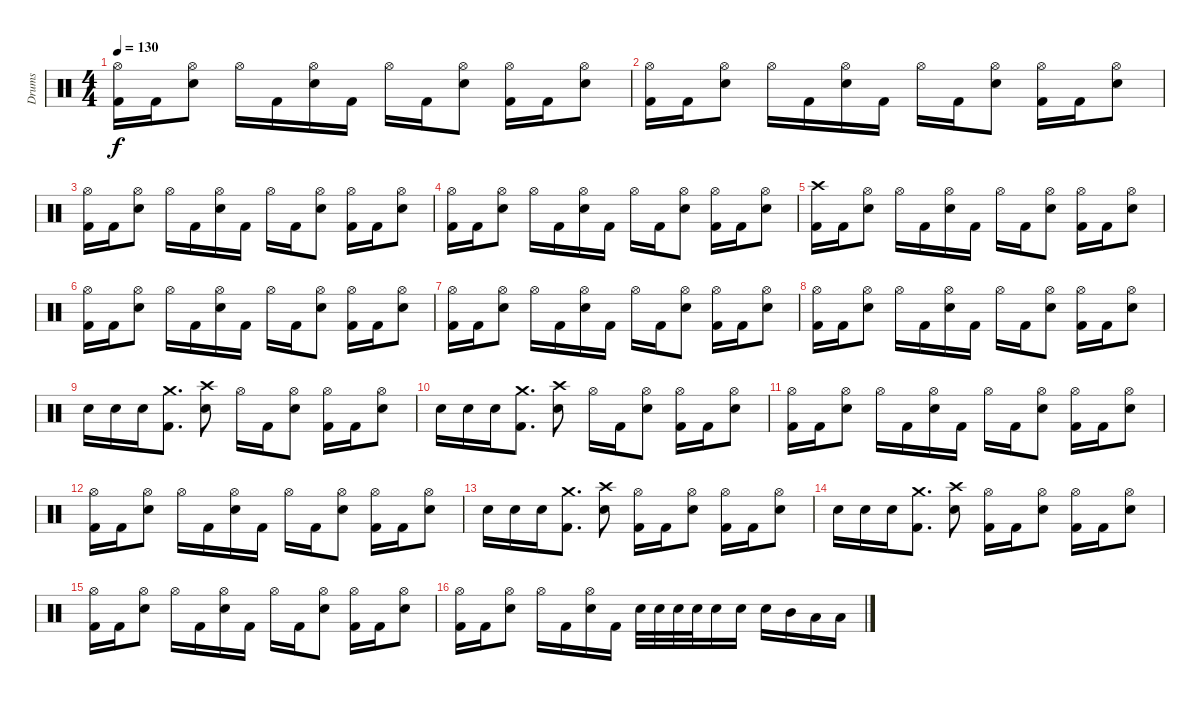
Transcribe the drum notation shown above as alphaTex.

\track ("Drums" "Drums") {instrument percussion}
\staff {score}
\articulation defaults
\ts (4 4)
\tempo 130
\clef neutral
\ks c
("Hi-Hat (open)" "Kick (hit) 2").16{dy f} "Kick (hit) 2".16 ("Hi-Hat (open)" "Electric Snare (hit)").8 "Hi-Hat (open)".16 "Kick (hit) 2".16 ("Hi-Hat (open)" "Electric Snare (hit)").16 "Kick (hit) 2".16 "Hi-Hat (open)".16 "Kick (hit) 2".16 ("Hi-Hat (open)" "Electric Snare (hit)").8 ("Hi-Hat (open)" "Kick (hit) 2").16 "Kick (hit) 2".16 ("Hi-Hat (open)" "Electric Snare (hit)").8 |
("Hi-Hat (open)" "Kick (hit) 2").16 "Kick (hit) 2".16 ("Hi-Hat (open)" "Electric Snare (hit)").8 "Hi-Hat (open)".16 "Kick (hit) 2".16 ("Hi-Hat (open)" "Electric Snare (hit)").16 "Kick (hit) 2".16 "Hi-Hat (open)".16 "Kick (hit) 2".16 ("Hi-Hat (open)" "Electric Snare (hit)").8 ("Hi-Hat (open)" "Kick (hit) 2").16 "Kick (hit) 2".16 ("Hi-Hat (open)" "Electric Snare (hit)").8 |
("Hi-Hat (open)" "Kick (hit) 2").16 "Kick (hit) 2".16 ("Hi-Hat (open)" "Electric Snare (hit)").8 "Hi-Hat (open)".16 "Kick (hit) 2".16 ("Hi-Hat (open)" "Electric Snare (hit)").16 "Kick (hit) 2".16 "Hi-Hat (open)".16 "Kick (hit) 2".16 ("Hi-Hat (open)" "Electric Snare (hit)").8 ("Hi-Hat (open)" "Kick (hit) 2").16 "Kick (hit) 2".16 ("Hi-Hat (open)" "Electric Snare (hit)").8 |
("Hi-Hat (open)" "Kick (hit) 2").16 "Kick (hit) 2".16 ("Hi-Hat (open)" "Electric Snare (hit)").8 "Hi-Hat (open)".16 "Kick (hit) 2".16 ("Hi-Hat (open)" "Electric Snare (hit)").16 "Kick (hit) 2".16 "Hi-Hat (open)".16 "Kick (hit) 2".16 ("Hi-Hat (open)" "Electric Snare (hit)").8 ("Hi-Hat (open)" "Kick (hit) 2").16 "Kick (hit) 2".16 ("Hi-Hat (open)" "Electric Snare (hit)").8 |
("Crash high (hit)" "Kick (hit) 2").16 "Kick (hit) 2".16 ("Hi-Hat (open)" "Electric Snare (hit)").8 "Hi-Hat (open)".16 "Kick (hit) 2".16 ("Hi-Hat (open)" "Electric Snare (hit)").16 "Kick (hit) 2".16 "Hi-Hat (open)".16 "Kick (hit) 2".16 ("Hi-Hat (open)" "Electric Snare (hit)").8 ("Hi-Hat (open)" "Kick (hit) 2").16 "Kick (hit) 2".16 ("Hi-Hat (open)" "Electric Snare (hit)").8 |
("Hi-Hat (open)" "Kick (hit) 2").16 "Kick (hit) 2".16 ("Hi-Hat (open)" "Electric Snare (hit)").8 "Hi-Hat (open)".16 "Kick (hit) 2".16 ("Hi-Hat (open)" "Electric Snare (hit)").16 "Kick (hit) 2".16 "Hi-Hat (open)".16 "Kick (hit) 2".16 ("Hi-Hat (open)" "Electric Snare (hit)").8 ("Hi-Hat (open)" "Kick (hit) 2").16 "Kick (hit) 2".16 ("Hi-Hat (open)" "Electric Snare (hit)").8 |
("Hi-Hat (open)" "Kick (hit) 2").16 "Kick (hit) 2".16 ("Hi-Hat (open)" "Electric Snare (hit)").8 "Hi-Hat (open)".16 "Kick (hit) 2".16 ("Hi-Hat (open)" "Electric Snare (hit)").16 "Kick (hit) 2".16 "Hi-Hat (open)".16 "Kick (hit) 2".16 ("Hi-Hat (open)" "Electric Snare (hit)").8 ("Hi-Hat (open)" "Kick (hit) 2").16 "Kick (hit) 2".16 ("Hi-Hat (open)" "Electric Snare (hit)").8 |
("Hi-Hat (open)" "Kick (hit) 2").16 "Kick (hit) 2".16 ("Hi-Hat (open)" "Electric Snare (hit)").8 "Hi-Hat (open)".16 "Kick (hit) 2".16 ("Hi-Hat (open)" "Electric Snare (hit)").16 "Kick (hit) 2".16 "Hi-Hat (open)".16 "Kick (hit) 2".16 ("Hi-Hat (open)" "Electric Snare (hit)").8 ("Hi-Hat (open)" "Kick (hit) 2").16 "Kick (hit) 2".16 ("Hi-Hat (open)" "Electric Snare (hit)").8 |
"Electric Snare (hit)".16 "Electric Snare (hit)".16 "Electric Snare (hit)".16 ("Crash medium (hit)" "Kick (hit) 2").8{d} ("Crash high (hit)" "Electric Snare (hit)").8 "Hi-Hat (open)".16 "Kick (hit) 2".16 ("Hi-Hat (open)" "Electric Snare (hit)").8 ("Hi-Hat (open)" "Kick (hit) 2").16 "Kick (hit) 2".16 ("Hi-Hat (open)" "Electric Snare (hit)").8 |
"Electric Snare (hit)".16 "Electric Snare (hit)".16 "Electric Snare (hit)".16 ("Crash medium (hit)" "Kick (hit) 2").8{d} ("Crash high (hit)" "Electric Snare (hit)").8 "Hi-Hat (open)".16 "Kick (hit) 2".16 ("Hi-Hat (open)" "Electric Snare (hit)").8 ("Hi-Hat (open)" "Kick (hit) 2").16 "Kick (hit) 2".16 ("Hi-Hat (open)" "Electric Snare (hit)").8 |
("Hi-Hat (open)" "Kick (hit) 2").16 "Kick (hit) 2".16 ("Hi-Hat (open)" "Electric Snare (hit)").8 "Hi-Hat (open)".16 "Kick (hit) 2".16 ("Hi-Hat (open)" "Electric Snare (hit)").16 "Kick (hit) 2".16 "Hi-Hat (open)".16 "Kick (hit) 2".16 ("Hi-Hat (open)" "Electric Snare (hit)").8 ("Hi-Hat (open)" "Kick (hit) 2").16 "Kick (hit) 2".16 ("Hi-Hat (open)" "Electric Snare (hit)").8 |
("Hi-Hat (open)" "Kick (hit) 2").16 "Kick (hit) 2".16 ("Hi-Hat (open)" "Electric Snare (hit)").8 "Hi-Hat (open)".16 "Kick (hit) 2".16 ("Hi-Hat (open)" "Electric Snare (hit)").16 "Kick (hit) 2".16 "Hi-Hat (open)".16 "Kick (hit) 2".16 ("Hi-Hat (open)" "Electric Snare (hit)").8 ("Hi-Hat (open)" "Kick (hit) 2").16 "Kick (hit) 2".16 ("Hi-Hat (open)" "Electric Snare (hit)").8 |
"Electric Snare (hit)".16 "Electric Snare (hit)".16 "Electric Snare (hit)".16 ("Crash medium (hit)" "Kick (hit) 2").8{d} ("Crash high (hit)" "Electric Snare (hit)").8 ("Hi-Hat (open)" "Kick (hit) 2").16 "Kick (hit) 2".16 ("Hi-Hat (open)" "Electric Snare (hit)").8 ("Hi-Hat (open)" "Kick (hit) 2").16 "Kick (hit) 2".16 ("Hi-Hat (open)" "Electric Snare (hit)").8 |
"Electric Snare (hit)".16 "Electric Snare (hit)".16 "Electric Snare (hit)".16 ("Crash medium (hit)" "Kick (hit) 2").8{d} ("Crash high (hit)" "Electric Snare (hit)").8 ("Hi-Hat (open)" "Kick (hit) 2").16 "Kick (hit) 2".16 ("Hi-Hat (open)" "Electric Snare (hit)").8 ("Hi-Hat (open)" "Kick (hit) 2").16 "Kick (hit) 2".16 ("Hi-Hat (open)" "Electric Snare (hit)").8 |
("Hi-Hat (open)" "Kick (hit) 2").16 "Kick (hit) 2".16 ("Hi-Hat (open)" "Electric Snare (hit)").8 "Hi-Hat (open)".16 "Kick (hit) 2".16 ("Hi-Hat (open)" "Electric Snare (hit)").16 "Kick (hit) 2".16 "Hi-Hat (open)".16 "Kick (hit) 2".16 ("Hi-Hat (open)" "Electric Snare (hit)").8 ("Hi-Hat (open)" "Kick (hit) 2").16 "Kick (hit) 2".16 ("Hi-Hat (open)" "Electric Snare (hit)").8 |
("Hi-Hat (open)" "Kick (hit) 2").16 "Kick (hit) 2".16 ("Hi-Hat (open)" "Electric Snare (hit)").8 "Hi-Hat (open)".16 "Kick (hit) 2".16 ("Hi-Hat (open)" "Electric Snare (hit)").16 "Kick (hit) 2".16 "Electric Snare (hit)".32 "Electric Snare (hit)".32 "Electric Snare (hit)".32 "Electric Snare (hit)".32 "Electric Snare (hit)".16 "Electric Snare (hit)".16 "Electric Snare (hit)".16 "Mid Tom (hit)".16 "Low Tom (hit)".16 "Low Tom (hit)".16
